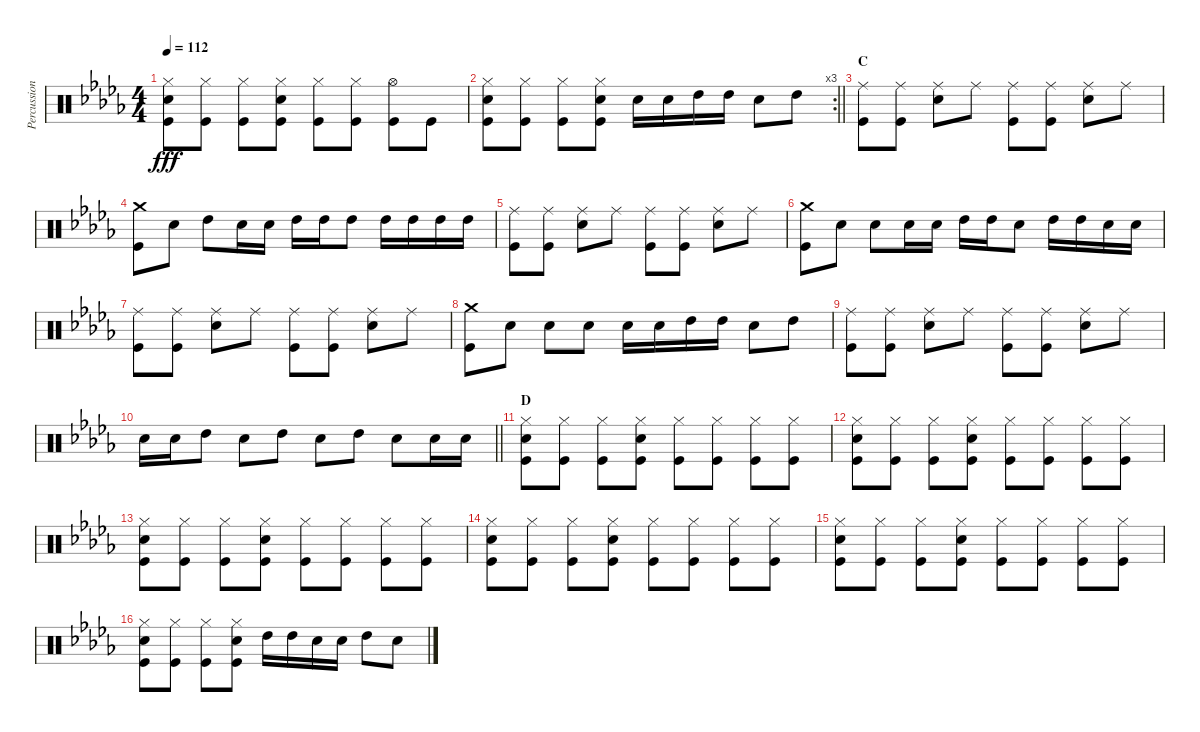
\track ("Percussioni" "Percussion") {instrument percussion}
\staff {score}
\articulation defaults
\ts (4 4)
\tempo 112
\clef neutral
\ks db
("Hi-Hat (closed)" "Snare (hit) 2" "Kick (hit)").8{dy fff} ("Hi-Hat (closed)" "Kick (hit)").8 ("Hi-Hat (closed)" "Kick (hit)").8 ("Hi-Hat (closed)" "Snare (hit) 2" "Kick (hit)").8 ("Hi-Hat (closed)" "Kick (hit)").8 ("Hi-Hat (closed)" "Kick (hit)").8 ("Hi-Hat (open)" "Kick (hit)").8 "Kick (hit)".8 |
\rc 3
\barLineRight lightlight
("Hi-Hat (closed)" "Snare (hit) 2" "Kick (hit)").8 ("Hi-Hat (closed)" "Kick (hit)").8 ("Hi-Hat (closed)" "Kick (hit)").8 ("Hi-Hat (closed)" "Snare (hit) 2" "Kick (hit)").8 "Snare (hit) 2".16 "Snare (hit) 2".16 "High Tom (hit)".16 "High Tom (hit)".16 "Snare (hit) 2".8 "High Tom (hit)".8 |
\section ("" "C")
("Ride (middle)" "Kick (hit)").8 ("Ride (middle)" "Kick (hit)").8 ("Ride (middle)" "Snare (hit) 2").8 "Ride (middle)".8 ("Ride (middle)" "Kick (hit)").8 ("Ride (middle)" "Kick (hit)").8 ("Ride (middle)" "Snare (hit) 2").8 "Ride (middle)".8 |
("Crash medium (hit)" "Kick (hit)").8 "Snare (hit) 2".8 "High Tom (hit)".8 "Snare (hit) 2".16 "Snare (hit) 2".16 "High Tom (hit)".16 "High Tom (hit)".16 "High Tom (hit)".8 "High Tom (hit)".16 "High Tom (hit)".16 "High Tom (hit)".16 "High Tom (hit)".16 |
("Ride (middle)" "Kick (hit)").8 ("Ride (middle)" "Kick (hit)").8 ("Ride (middle)" "Snare (hit) 2").8 "Ride (middle)".8 ("Ride (middle)" "Kick (hit)").8 ("Ride (middle)" "Kick (hit)").8 ("Ride (middle)" "Snare (hit) 2").8 "Ride (middle)".8 |
("Crash medium (hit)" "Kick (hit)").8 "Snare (hit) 2".8 "Snare (hit) 2".8 "Snare (hit) 2".16 "Snare (hit) 2".16 "High Tom (hit)".16 "High Tom (hit)".16 "Snare (hit) 2".8 "High Tom (hit)".16 "High Tom (hit)".16 "Snare (hit) 2".16 "Snare (hit) 2".16 |
("Ride (middle)" "Kick (hit)").8 ("Ride (middle)" "Kick (hit)").8 ("Ride (middle)" "Snare (hit) 2").8 "Ride (middle)".8 ("Ride (middle)" "Kick (hit)").8 ("Ride (middle)" "Kick (hit)").8 ("Ride (middle)" "Snare (hit) 2").8 "Ride (middle)".8 |
("Crash medium (hit)" "Kick (hit)").8 "Snare (hit) 2".8 "Snare (hit) 2".8 "Snare (hit) 2".8 "Snare (hit) 2".16 "Snare (hit) 2".16 "High Tom (hit)".16 "High Tom (hit)".16 "Snare (hit) 2".8 "High Tom (hit)".8 |
("Ride (middle)" "Kick (hit)").8 ("Ride (middle)" "Kick (hit)").8 ("Ride (middle)" "Snare (hit) 2").8 "Ride (middle)".8 ("Ride (middle)" "Kick (hit)").8 ("Ride (middle)" "Kick (hit)").8 ("Ride (middle)" "Snare (hit) 2").8 "Ride (middle)".8 |
\barLineRight lightlight "Snare (hit) 2".16 "Snare (hit) 2".16 "High Tom (hit)".8 "Snare (hit) 2".8 "High Tom (hit)".8 "Snare (hit) 2".8 "High Tom (hit)".8 "Snare (hit) 2".8 "Snare (hit) 2".16 "Snare (hit) 2".16
|
\section ("" "D")
("Hi-Hat (closed)" "Snare (hit) 2" "Kick (hit)").8 ("Hi-Hat (closed)" "Kick (hit)").8 ("Hi-Hat (closed)" "Kick (hit)").8 ("Hi-Hat (closed)" "Snare (hit) 2" "Kick (hit)").8 ("Hi-Hat (closed)" "Kick (hit)").8 ("Hi-Hat (closed)" "Kick (hit)").8 ("Hi-Hat (closed)" "Kick (hit)").8 ("Hi-Hat (closed)" "Kick (hit)").8 |
("Hi-Hat (closed)" "Snare (hit) 2" "Kick (hit)").8 ("Hi-Hat (closed)" "Kick (hit)").8 ("Hi-Hat (closed)" "Kick (hit)").8 ("Hi-Hat (closed)" "Snare (hit) 2" "Kick (hit)").8 ("Hi-Hat (closed)" "Kick (hit)").8 ("Hi-Hat (closed)" "Kick (hit)").8 ("Hi-Hat (closed)" "Kick (hit)").8 ("Hi-Hat (closed)" "Kick (hit)").8 |
("Hi-Hat (closed)" "Snare (hit) 2" "Kick (hit)").8 ("Hi-Hat (closed)" "Kick (hit)").8 ("Hi-Hat (closed)" "Kick (hit)").8 ("Hi-Hat (closed)" "Snare (hit) 2" "Kick (hit)").8 ("Hi-Hat (closed)" "Kick (hit)").8 ("Hi-Hat (closed)" "Kick (hit)").8 ("Hi-Hat (closed)" "Kick (hit)").8 ("Hi-Hat (closed)" "Kick (hit)").8 |
("Hi-Hat (closed)" "Snare (hit) 2" "Kick (hit)").8 ("Hi-Hat (closed)" "Kick (hit)").8 ("Hi-Hat (closed)" "Kick (hit)").8 ("Hi-Hat (closed)" "Snare (hit) 2" "Kick (hit)").8 ("Hi-Hat (closed)" "Kick (hit)").8 ("Hi-Hat (closed)" "Kick (hit)").8 ("Hi-Hat (closed)" "Kick (hit)").8 ("Hi-Hat (closed)" "Kick (hit)").8 |
("Hi-Hat (closed)" "Snare (hit) 2" "Kick (hit)").8 ("Hi-Hat (closed)" "Kick (hit)").8 ("Hi-Hat (closed)" "Kick (hit)").8 ("Hi-Hat (closed)" "Snare (hit) 2" "Kick (hit)").8 ("Hi-Hat (closed)" "Kick (hit)").8 ("Hi-Hat (closed)" "Kick (hit)").8 ("Hi-Hat (closed)" "Kick (hit)").8 ("Hi-Hat (closed)" "Kick (hit)").8 |
("Hi-Hat (closed)" "Snare (hit) 2" "Kick (hit)").8 ("Hi-Hat (closed)" "Kick (hit)").8 ("Hi-Hat (closed)" "Kick (hit)").8 ("Hi-Hat (closed)" "Snare (hit) 2" "Kick (hit)").8 "High Tom (hit)".16 "High Tom (hit)".16 "Snare (hit) 2".16 "Snare (hit) 2".16 "High Tom (hit)".8 "Snare (hit) 2".8
